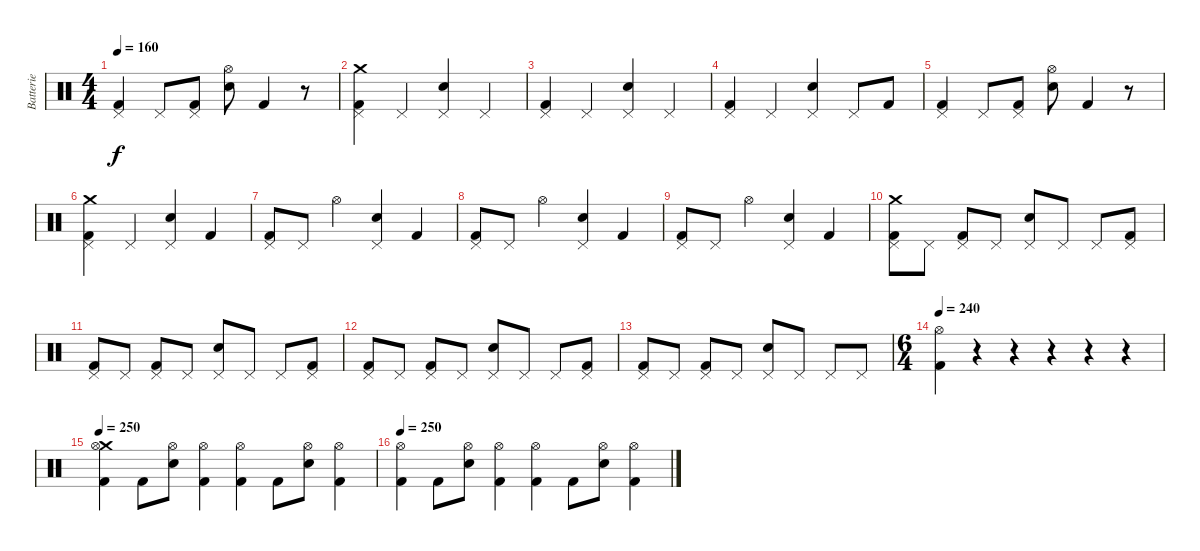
\track ("Batterie" "Batterie") {instrument percussion}
\staff {score}
\articulation defaults
\ts (4 4)
\tempo 160
\clef neutral
\ks c
("Pedal Hi-Hat (hit)" "Kick (hit) 2").4{dy f} "Pedal Hi-Hat (hit)".8 ("Pedal Hi-Hat (hit)" "Kick (hit) 2").8 ("Hi-Hat (open)" "Electric Snare (hit)").8 "Kick (hit) 2".4 r.8 |
("Crash medium (hit)" "Pedal Hi-Hat (hit)" "Kick (hit) 2").4 "Pedal Hi-Hat (hit)".4 ("Pedal Hi-Hat (hit)" "Electric Snare (hit)").4 "Pedal Hi-Hat (hit)".4 |
("Pedal Hi-Hat (hit)" "Kick (hit) 2").4 "Pedal Hi-Hat (hit)".4 ("Pedal Hi-Hat (hit)" "Electric Snare (hit)").4 "Pedal Hi-Hat (hit)".4 |
("Pedal Hi-Hat (hit)" "Kick (hit) 2").4 "Pedal Hi-Hat (hit)".4 ("Pedal Hi-Hat (hit)" "Electric Snare (hit)").4 "Pedal Hi-Hat (hit)".8 "Kick (hit) 2".8 |
("Pedal Hi-Hat (hit)" "Kick (hit) 2").4 "Pedal Hi-Hat (hit)".8 ("Pedal Hi-Hat (hit)" "Kick (hit) 2").8 ("Hi-Hat (open)" "Electric Snare (hit)").8 "Kick (hit) 2".4 r.8 |
("Crash medium (hit)" "Pedal Hi-Hat (hit)" "Kick (hit) 2").4 "Pedal Hi-Hat (hit)".4 ("Pedal Hi-Hat (hit)" "Electric Snare (hit)").4 "Kick (hit) 2".4 |
("Pedal Hi-Hat (hit)" "Kick (hit) 2").8 "Pedal Hi-Hat (hit)".8 "Hi-Hat (open)".4 ("Pedal Hi-Hat (hit)" "Electric Snare (hit)").4 "Kick (hit) 2".4 |
("Pedal Hi-Hat (hit)" "Kick (hit) 2").8 "Pedal Hi-Hat (hit)".8 "Hi-Hat (open)".4 ("Pedal Hi-Hat (hit)" "Electric Snare (hit)").4 "Kick (hit) 2".4 |
("Pedal Hi-Hat (hit)" "Kick (hit) 2").8 "Pedal Hi-Hat (hit)".8 "Hi-Hat (open)".4 ("Pedal Hi-Hat (hit)" "Electric Snare (hit)").4 "Kick (hit) 2".4 |
("Crash medium (hit)" "Pedal Hi-Hat (hit)" "Kick (hit) 2").8 "Pedal Hi-Hat (hit)".8 ("Pedal Hi-Hat (hit)" "Kick (hit) 2").8 "Pedal Hi-Hat (hit)".8 ("Pedal Hi-Hat (hit)" "Electric Snare (hit)").8 "Pedal Hi-Hat (hit)".8 "Pedal Hi-Hat (hit)".8 ("Pedal Hi-Hat (hit)" "Kick (hit) 2").8 |
("Pedal Hi-Hat (hit)" "Kick (hit) 2").8 "Pedal Hi-Hat (hit)".8 ("Pedal Hi-Hat (hit)" "Kick (hit) 2").8 "Pedal Hi-Hat (hit)".8 ("Pedal Hi-Hat (hit)" "Electric Snare (hit)").8 "Pedal Hi-Hat (hit)".8 "Pedal Hi-Hat (hit)".8 ("Pedal Hi-Hat (hit)" "Kick (hit) 2").8 |
("Pedal Hi-Hat (hit)" "Kick (hit) 2").8 "Pedal Hi-Hat (hit)".8 ("Pedal Hi-Hat (hit)" "Kick (hit) 2").8 "Pedal Hi-Hat (hit)".8 ("Pedal Hi-Hat (hit)" "Electric Snare (hit)").8 "Pedal Hi-Hat (hit)".8 "Pedal Hi-Hat (hit)".8 ("Pedal Hi-Hat (hit)" "Kick (hit) 2").8 |
("Pedal Hi-Hat (hit)" "Kick (hit) 2").8 "Pedal Hi-Hat (hit)".8 ("Pedal Hi-Hat (hit)" "Kick (hit) 2").8 "Pedal Hi-Hat (hit)".8 ("Pedal Hi-Hat (hit)" "Electric Snare (hit)").8 "Pedal Hi-Hat (hit)".8 "Pedal Hi-Hat (hit)".8 "Pedal Hi-Hat (hit)".8 |
\ts (6 4)
\tempo 240
("Hi-Hat (open)" "Kick (hit) 2").4 r.4 r.4 r.4 r.4 r.4 |
\tempo 250
("Crash medium (hit)" "Hi-Hat (open)" "Kick (hit) 2").4 "Kick (hit) 2".8 ("Hi-Hat (open)" "Electric Snare (hit)").8 ("Hi-Hat (open)" "Kick (hit) 2").4 ("Hi-Hat (open)" "Kick (hit) 2").4 "Kick (hit) 2".8 ("Hi-Hat (open)" "Electric Snare (hit)").8 ("Hi-Hat (open)" "Kick (hit) 2").4 |
\tempo 250
("Hi-Hat (open)" "Kick (hit) 2").4 "Kick (hit) 2".8 ("Hi-Hat (open)" "Electric Snare (hit)").8 ("Hi-Hat (open)" "Kick (hit) 2").4 ("Hi-Hat (open)" "Kick (hit) 2").4 "Kick (hit) 2".8 ("Hi-Hat (open)" "Electric Snare (hit)").8 ("Hi-Hat (open)" "Kick (hit) 2").4
